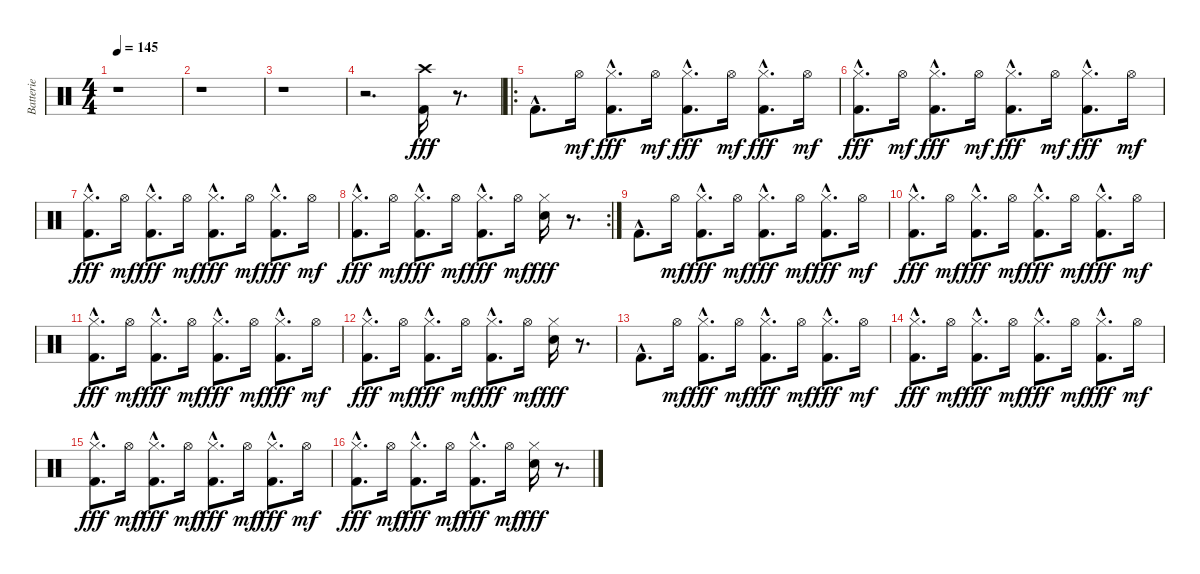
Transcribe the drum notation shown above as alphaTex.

\track ("Batterie" "Batterie") {instrument percussion}
\staff {score}
\articulation defaults
\ts (4 4)
\tempo 145
\clef neutral
\ks c
r.1{dy fff} |
r.1 |
r.1 |
r.2{d} ("Crash high (hit)" "Kick (hit) 2").16 r.8{d} |
\ro "Kick (hit) 2"{hac}.8{d} "Hi-Hat (open)".16{dy mf}
("Hi-Hat (closed)"{hac} "Kick (hit) 2"{hac}).8{d dy fff} "Hi-Hat (open)".16{dy mf} ("Hi-Hat (closed)"{hac} "Kick (hit) 2"{hac}).8{d dy fff} "Hi-Hat (open)".16{dy mf} ("Hi-Hat (closed)"{hac} "Kick (hit) 2"{hac}).8{d dy fff} "Hi-Hat (open)".16{dy mf} |
("Hi-Hat (closed)"{hac} "Kick (hit) 2"{hac}).8{d dy fff} "Hi-Hat (open)".16{dy mf} ("Hi-Hat (closed)"{hac} "Kick (hit) 2"{hac}).8{d dy fff} "Hi-Hat (open)".16{dy mf} ("Hi-Hat (closed)"{hac} "Kick (hit) 2"{hac}).8{d dy fff} "Hi-Hat (open)".16{dy mf} ("Hi-Hat (closed)"{hac} "Kick (hit) 2"{hac}).8{d dy fff} "Hi-Hat (open)".16{dy mf} |
("Hi-Hat (closed)"{hac} "Kick (hit) 2"{hac}).8{d dy fff} "Hi-Hat (open)".16{dy mf} ("Hi-Hat (closed)"{hac} "Kick (hit) 2"{hac}).8{d dy fff} "Hi-Hat (open)".16{dy mf} ("Hi-Hat (closed)"{hac} "Kick (hit) 2"{hac}).8{d dy fff} "Hi-Hat (open)".16{dy mf} ("Hi-Hat (closed)"{hac} "Kick (hit) 2"{hac}).8{d dy fff} "Hi-Hat (open)".16{dy mf} |
\rc 2
("Hi-Hat (closed)"{hac} "Kick (hit) 2"{hac}).8{d dy fff} "Hi-Hat (open)".16{dy mf} ("Hi-Hat (closed)"{hac} "Kick (hit) 2"{hac}).8{d dy fff} "Hi-Hat (open)".16{dy mf} ("Hi-Hat (closed)"{hac} "Kick (hit) 2"{hac}).8{d dy fff} "Hi-Hat (open)".16{dy mf} ("Hi-Hat (closed)" "Electric Snare (hit)").16{dy fff} r.8{d} |
"Kick (hit) 2"{hac}.8{d} "Hi-Hat (open)".16{dy mf} ("Hi-Hat (closed)"{hac} "Kick (hit) 2"{hac}).8{d dy fff} "Hi-Hat (open)".16{dy mf} ("Hi-Hat (closed)"{hac} "Kick (hit) 2"{hac}).8{d dy fff} "Hi-Hat (open)".16{dy mf} ("Hi-Hat (closed)"{hac} "Kick (hit) 2"{hac}).8{d dy fff} "Hi-Hat (open)".16{dy mf} |
("Hi-Hat (closed)"{hac} "Kick (hit) 2"{hac}).8{d dy fff} "Hi-Hat (open)".16{dy mf} ("Hi-Hat (closed)"{hac} "Kick (hit) 2"{hac}).8{d dy fff} "Hi-Hat (open)".16{dy mf} ("Hi-Hat (closed)"{hac} "Kick (hit) 2"{hac}).8{d dy fff} "Hi-Hat (open)".16{dy mf} ("Hi-Hat (closed)"{hac} "Kick (hit) 2"{hac}).8{d dy fff} "Hi-Hat (open)".16{dy mf} |
("Hi-Hat (closed)"{hac} "Kick (hit) 2"{hac}).8{d dy fff} "Hi-Hat (open)".16{dy mf} ("Hi-Hat (closed)"{hac} "Kick (hit) 2"{hac}).8{d dy fff} "Hi-Hat (open)".16{dy mf} ("Hi-Hat (closed)"{hac} "Kick (hit) 2"{hac}).8{d dy fff} "Hi-Hat (open)".16{dy mf} ("Hi-Hat (closed)"{hac} "Kick (hit) 2"{hac}).8{d dy fff} "Hi-Hat (open)".16{dy mf} |
("Hi-Hat (closed)"{hac} "Kick (hit) 2"{hac}).8{d dy fff} "Hi-Hat (open)".16{dy mf} ("Hi-Hat (closed)"{hac} "Kick (hit) 2"{hac}).8{d dy fff} "Hi-Hat (open)".16{dy mf} ("Hi-Hat (closed)"{hac} "Kick (hit) 2"{hac}).8{d dy fff} "Hi-Hat (open)".16{dy mf} ("Hi-Hat (closed)" "Electric Snare (hit)").16{dy fff} r.8{d} |
"Kick (hit) 2"{hac}.8{d} "Hi-Hat (open)".16{dy mf} ("Hi-Hat (closed)"{hac} "Kick (hit) 2"{hac}).8{d dy fff} "Hi-Hat (open)".16{dy mf} ("Hi-Hat (closed)"{hac} "Kick (hit) 2"{hac}).8{d dy fff} "Hi-Hat (open)".16{dy mf} ("Hi-Hat (closed)"{hac} "Kick (hit) 2"{hac}).8{d dy fff} "Hi-Hat (open)".16{dy mf} |
("Hi-Hat (closed)"{hac} "Kick (hit) 2"{hac}).8{d dy fff} "Hi-Hat (open)".16{dy mf} ("Hi-Hat (closed)"{hac} "Kick (hit) 2"{hac}).8{d dy fff} "Hi-Hat (open)".16{dy mf} ("Hi-Hat (closed)"{hac} "Kick (hit) 2"{hac}).8{d dy fff} "Hi-Hat (open)".16{dy mf} ("Hi-Hat (closed)"{hac} "Kick (hit) 2"{hac}).8{d dy fff} "Hi-Hat (open)".16{dy mf} |
("Hi-Hat (closed)"{hac} "Kick (hit) 2"{hac}).8{d dy fff} "Hi-Hat (open)".16{dy mf} ("Hi-Hat (closed)"{hac} "Kick (hit) 2"{hac}).8{d dy fff} "Hi-Hat (open)".16{dy mf} ("Hi-Hat (closed)"{hac} "Kick (hit) 2"{hac}).8{d dy fff} "Hi-Hat (open)".16{dy mf} ("Hi-Hat (closed)"{hac} "Kick (hit) 2"{hac}).8{d dy fff} "Hi-Hat (open)".16{dy mf} |
("Hi-Hat (closed)"{hac} "Kick (hit) 2"{hac}).8{d dy fff} "Hi-Hat (open)".16{dy mf} ("Hi-Hat (closed)"{hac} "Kick (hit) 2"{hac}).8{d dy fff} "Hi-Hat (open)".16{dy mf} ("Hi-Hat (closed)"{hac} "Kick (hit) 2"{hac}).8{d dy fff} "Hi-Hat (open)".16{dy mf} ("Hi-Hat (closed)" "Electric Snare (hit)").16{dy fff} r.8{d}
